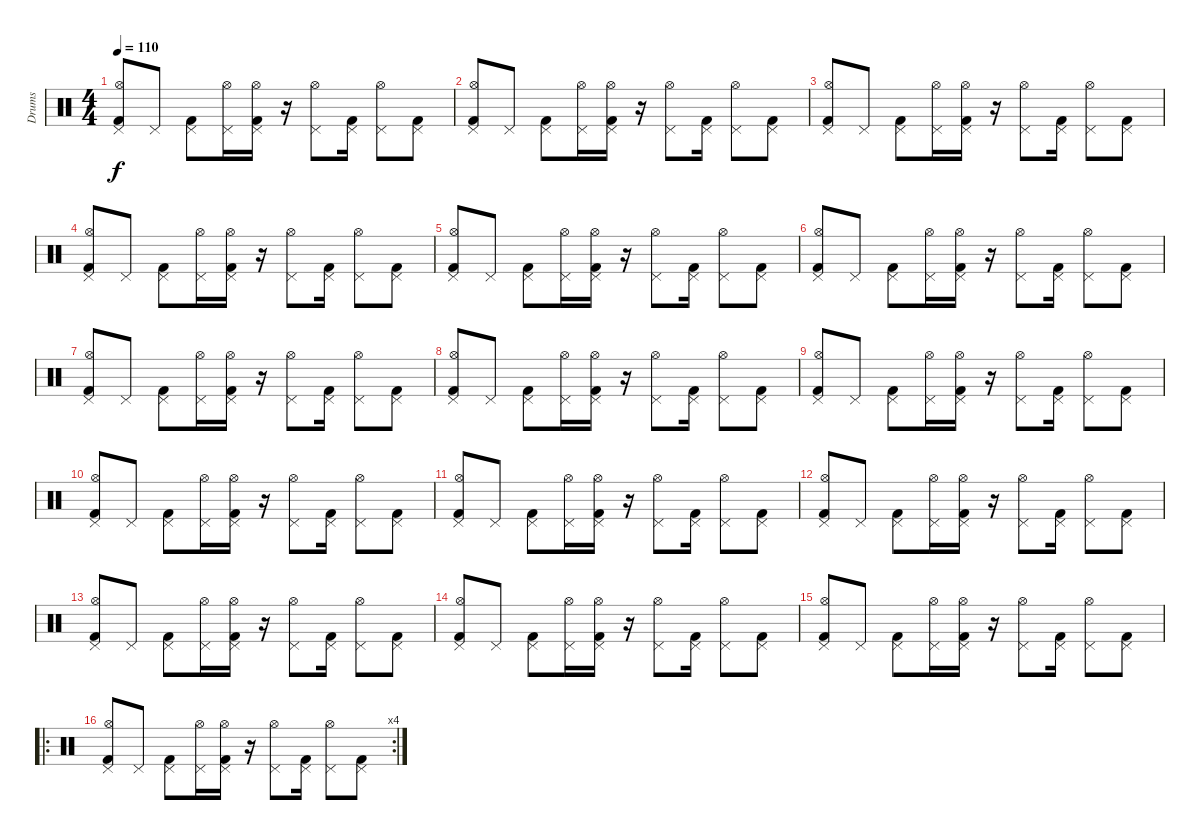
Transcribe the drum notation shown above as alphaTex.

\track ("Drums" "Drums") {instrument percussion}
\staff {score}
\articulation defaults
\ts (4 4)
\tempo 110
\clef neutral
\ks c
("Kick (hit) 2" "Hi-Hat (open)" "Pedal Hi-Hat (hit)").8{dy f} "Pedal Hi-Hat (hit)".8 ("Kick (hit) 2" "Pedal Hi-Hat (hit)").8 ("Hi-Hat (open)" "Pedal Hi-Hat (hit)").16 ("Kick (hit) 2" "Hi-Hat (open)" "Pedal Hi-Hat (hit)").16 r.16 ("Hi-Hat (open)" "Pedal Hi-Hat (hit)").8 ("Kick (hit) 2" "Pedal Hi-Hat (hit)").16 ("Hi-Hat (open)" "Pedal Hi-Hat (hit)").8 ("Kick (hit) 2" "Pedal Hi-Hat (hit)").8 |
("Kick (hit) 2" "Hi-Hat (open)" "Pedal Hi-Hat (hit)").8 "Pedal Hi-Hat (hit)".8 ("Kick (hit) 2" "Pedal Hi-Hat (hit)").8 ("Hi-Hat (open)" "Pedal Hi-Hat (hit)").16 ("Kick (hit) 2" "Hi-Hat (open)" "Pedal Hi-Hat (hit)").16 r.16 ("Hi-Hat (open)" "Pedal Hi-Hat (hit)").8 ("Kick (hit) 2" "Pedal Hi-Hat (hit)").16 ("Hi-Hat (open)" "Pedal Hi-Hat (hit)").8 ("Kick (hit) 2" "Pedal Hi-Hat (hit)").8 |
("Kick (hit) 2" "Hi-Hat (open)" "Pedal Hi-Hat (hit)").8 "Pedal Hi-Hat (hit)".8 ("Kick (hit) 2" "Pedal Hi-Hat (hit)").8 ("Hi-Hat (open)" "Pedal Hi-Hat (hit)").16 ("Kick (hit) 2" "Hi-Hat (open)" "Pedal Hi-Hat (hit)").16 r.16 ("Hi-Hat (open)" "Pedal Hi-Hat (hit)").8 ("Kick (hit) 2" "Pedal Hi-Hat (hit)").16 ("Hi-Hat (open)" "Pedal Hi-Hat (hit)").8 ("Kick (hit) 2" "Pedal Hi-Hat (hit)").8 |
("Kick (hit) 2" "Hi-Hat (open)" "Pedal Hi-Hat (hit)").8 "Pedal Hi-Hat (hit)".8 ("Kick (hit) 2" "Pedal Hi-Hat (hit)").8 ("Hi-Hat (open)" "Pedal Hi-Hat (hit)").16 ("Kick (hit) 2" "Hi-Hat (open)" "Pedal Hi-Hat (hit)").16 r.16 ("Hi-Hat (open)" "Pedal Hi-Hat (hit)").8 ("Kick (hit) 2" "Pedal Hi-Hat (hit)").16 ("Hi-Hat (open)" "Pedal Hi-Hat (hit)").8 ("Kick (hit) 2" "Pedal Hi-Hat (hit)").8 |
("Kick (hit) 2" "Hi-Hat (open)" "Pedal Hi-Hat (hit)").8 "Pedal Hi-Hat (hit)".8 ("Kick (hit) 2" "Pedal Hi-Hat (hit)").8 ("Hi-Hat (open)" "Pedal Hi-Hat (hit)").16 ("Kick (hit) 2" "Hi-Hat (open)" "Pedal Hi-Hat (hit)").16 r.16 ("Hi-Hat (open)" "Pedal Hi-Hat (hit)").8 ("Kick (hit) 2" "Pedal Hi-Hat (hit)").16 ("Hi-Hat (open)" "Pedal Hi-Hat (hit)").8 ("Kick (hit) 2" "Pedal Hi-Hat (hit)").8 |
("Kick (hit) 2" "Hi-Hat (open)" "Pedal Hi-Hat (hit)").8 "Pedal Hi-Hat (hit)".8 ("Kick (hit) 2" "Pedal Hi-Hat (hit)").8 ("Hi-Hat (open)" "Pedal Hi-Hat (hit)").16 ("Kick (hit) 2" "Hi-Hat (open)" "Pedal Hi-Hat (hit)").16 r.16 ("Hi-Hat (open)" "Pedal Hi-Hat (hit)").8 ("Kick (hit) 2" "Pedal Hi-Hat (hit)").16 ("Hi-Hat (open)" "Pedal Hi-Hat (hit)").8 ("Kick (hit) 2" "Pedal Hi-Hat (hit)").8 |
("Kick (hit) 2" "Hi-Hat (open)" "Pedal Hi-Hat (hit)").8 "Pedal Hi-Hat (hit)".8 ("Kick (hit) 2" "Pedal Hi-Hat (hit)").8 ("Hi-Hat (open)" "Pedal Hi-Hat (hit)").16 ("Kick (hit) 2" "Hi-Hat (open)" "Pedal Hi-Hat (hit)").16 r.16 ("Hi-Hat (open)" "Pedal Hi-Hat (hit)").8 ("Kick (hit) 2" "Pedal Hi-Hat (hit)").16 ("Hi-Hat (open)" "Pedal Hi-Hat (hit)").8 ("Kick (hit) 2" "Pedal Hi-Hat (hit)").8 |
("Kick (hit) 2" "Hi-Hat (open)" "Pedal Hi-Hat (hit)").8 "Pedal Hi-Hat (hit)".8 ("Kick (hit) 2" "Pedal Hi-Hat (hit)").8 ("Hi-Hat (open)" "Pedal Hi-Hat (hit)").16 ("Kick (hit) 2" "Hi-Hat (open)" "Pedal Hi-Hat (hit)").16 r.16 ("Hi-Hat (open)" "Pedal Hi-Hat (hit)").8 ("Kick (hit) 2" "Pedal Hi-Hat (hit)").16 ("Hi-Hat (open)" "Pedal Hi-Hat (hit)").8 ("Kick (hit) 2" "Pedal Hi-Hat (hit)").8 |
("Kick (hit) 2" "Hi-Hat (open)" "Pedal Hi-Hat (hit)").8 "Pedal Hi-Hat (hit)".8 ("Kick (hit) 2" "Pedal Hi-Hat (hit)").8 ("Hi-Hat (open)" "Pedal Hi-Hat (hit)").16 ("Kick (hit) 2" "Hi-Hat (open)" "Pedal Hi-Hat (hit)").16 r.16 ("Hi-Hat (open)" "Pedal Hi-Hat (hit)").8 ("Kick (hit) 2" "Pedal Hi-Hat (hit)").16 ("Hi-Hat (open)" "Pedal Hi-Hat (hit)").8 ("Kick (hit) 2" "Pedal Hi-Hat (hit)").8 |
("Kick (hit) 2" "Hi-Hat (open)" "Pedal Hi-Hat (hit)").8 "Pedal Hi-Hat (hit)".8 ("Kick (hit) 2" "Pedal Hi-Hat (hit)").8 ("Hi-Hat (open)" "Pedal Hi-Hat (hit)").16 ("Kick (hit) 2" "Hi-Hat (open)" "Pedal Hi-Hat (hit)").16 r.16 ("Hi-Hat (open)" "Pedal Hi-Hat (hit)").8 ("Kick (hit) 2" "Pedal Hi-Hat (hit)").16 ("Hi-Hat (open)" "Pedal Hi-Hat (hit)").8 ("Kick (hit) 2" "Pedal Hi-Hat (hit)").8 |
("Kick (hit) 2" "Hi-Hat (open)" "Pedal Hi-Hat (hit)").8 "Pedal Hi-Hat (hit)".8 ("Kick (hit) 2" "Pedal Hi-Hat (hit)").8 ("Hi-Hat (open)" "Pedal Hi-Hat (hit)").16 ("Kick (hit) 2" "Hi-Hat (open)" "Pedal Hi-Hat (hit)").16 r.16 ("Hi-Hat (open)" "Pedal Hi-Hat (hit)").8 ("Kick (hit) 2" "Pedal Hi-Hat (hit)").16 ("Hi-Hat (open)" "Pedal Hi-Hat (hit)").8 ("Kick (hit) 2" "Pedal Hi-Hat (hit)").8 |
("Kick (hit) 2" "Hi-Hat (open)" "Pedal Hi-Hat (hit)").8 "Pedal Hi-Hat (hit)".8 ("Kick (hit) 2" "Pedal Hi-Hat (hit)").8 ("Hi-Hat (open)" "Pedal Hi-Hat (hit)").16 ("Kick (hit) 2" "Hi-Hat (open)" "Pedal Hi-Hat (hit)").16 r.16 ("Hi-Hat (open)" "Pedal Hi-Hat (hit)").8 ("Kick (hit) 2" "Pedal Hi-Hat (hit)").16 ("Hi-Hat (open)" "Pedal Hi-Hat (hit)").8 ("Kick (hit) 2" "Pedal Hi-Hat (hit)").8 |
("Kick (hit) 2" "Hi-Hat (open)" "Pedal Hi-Hat (hit)").8 "Pedal Hi-Hat (hit)".8 ("Kick (hit) 2" "Pedal Hi-Hat (hit)").8 ("Hi-Hat (open)" "Pedal Hi-Hat (hit)").16 ("Kick (hit) 2" "Hi-Hat (open)" "Pedal Hi-Hat (hit)").16 r.16 ("Hi-Hat (open)" "Pedal Hi-Hat (hit)").8 ("Kick (hit) 2" "Pedal Hi-Hat (hit)").16 ("Hi-Hat (open)" "Pedal Hi-Hat (hit)").8 ("Kick (hit) 2" "Pedal Hi-Hat (hit)").8 |
("Kick (hit) 2" "Hi-Hat (open)" "Pedal Hi-Hat (hit)").8 "Pedal Hi-Hat (hit)".8 ("Kick (hit) 2" "Pedal Hi-Hat (hit)").8 ("Hi-Hat (open)" "Pedal Hi-Hat (hit)").16 ("Kick (hit) 2" "Hi-Hat (open)" "Pedal Hi-Hat (hit)").16 r.16 ("Hi-Hat (open)" "Pedal Hi-Hat (hit)").8 ("Kick (hit) 2" "Pedal Hi-Hat (hit)").16 ("Hi-Hat (open)" "Pedal Hi-Hat (hit)").8 ("Kick (hit) 2" "Pedal Hi-Hat (hit)").8 |
("Kick (hit) 2" "Hi-Hat (open)" "Pedal Hi-Hat (hit)").8 "Pedal Hi-Hat (hit)".8 ("Kick (hit) 2" "Pedal Hi-Hat (hit)").8 ("Hi-Hat (open)" "Pedal Hi-Hat (hit)").16 ("Kick (hit) 2" "Hi-Hat (open)" "Pedal Hi-Hat (hit)").16 r.16 ("Hi-Hat (open)" "Pedal Hi-Hat (hit)").8 ("Kick (hit) 2" "Pedal Hi-Hat (hit)").16 ("Hi-Hat (open)" "Pedal Hi-Hat (hit)").8 ("Kick (hit) 2" "Pedal Hi-Hat (hit)").8 |
\ro
\rc 4
("Kick (hit) 2" "Hi-Hat (open)" "Pedal Hi-Hat (hit)").8 "Pedal Hi-Hat (hit)".8 ("Kick (hit) 2" "Pedal Hi-Hat (hit)").8 ("Hi-Hat (open)" "Pedal Hi-Hat (hit)").16 ("Kick (hit) 2" "Hi-Hat (open)" "Pedal Hi-Hat (hit)").16 r.16 ("Hi-Hat (open)" "Pedal Hi-Hat (hit)").8 ("Kick (hit) 2" "Pedal Hi-Hat (hit)").16 ("Hi-Hat (open)" "Pedal Hi-Hat (hit)").8 ("Kick (hit) 2" "Pedal Hi-Hat (hit)").8
